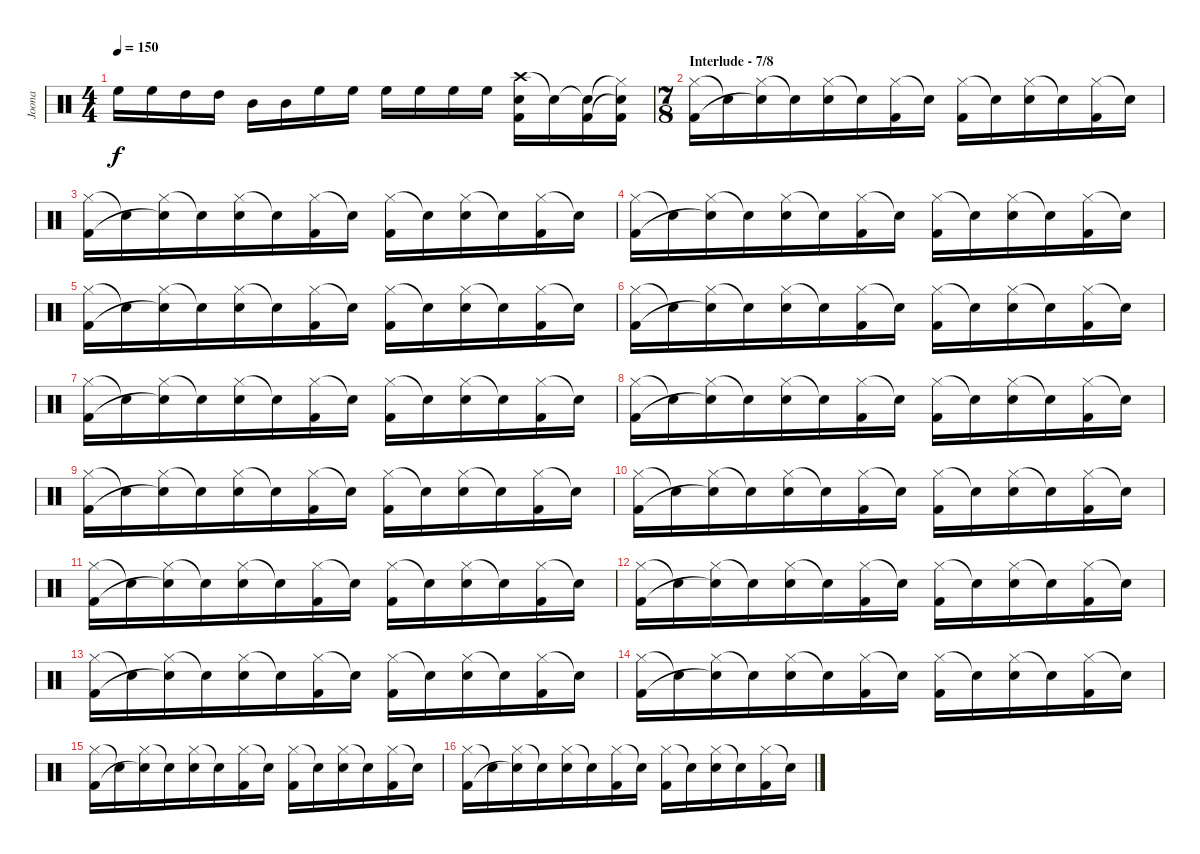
\track ("Joona" "Joona") {instrument percussion}
\staff {score}
\articulation defaults
\ts (4 4)
\tempo 150
\clef neutral
\ks c "High Floor Tom (hit)".16{dy f} "High Floor Tom (hit)".16 "High Tom (hit)".16 "High Tom (hit)".16 "Mid Tom (hit)".16 "Mid Tom (hit)".16 "High Floor Tom (hit)".16 "High Floor Tom (hit)".16 "High Floor Tom (hit)".16 "High Floor Tom (hit)".16 "High Floor Tom (hit)".16 "High Floor Tom (hit)".16
("Crash high (hit)" "Kick (hit) 2" "Snare (hit) 2").16 "Snare (hit)"{t}.16 ("Snare (hit)"{t} "Kick (hit) 2").16 ("Hi-Hat (closed)"{t} "Snare (hit)"{t} "Kick (hit) 2").16 |
\ts (7 8)
\section ("" "Interlude - 7/8")
("Hi-Hat (closed)" "Kick (hit) 2").16 "Snare (hit)"{t}.16 ("Hi-Hat (closed)" "Snare (hit)"{t}).16 "Snare (hit)"{t}.16 ("Hi-Hat (closed)" "Snare (hit) 2").16 "Snare (hit)"{t}.16 ("Hi-Hat (closed)" "Kick (hit) 2").16 "Snare (hit)"{t}.16 ("Hi-Hat (closed)" "Kick (hit) 2").16 "Snare (hit)"{t}.16 ("Hi-Hat (closed)" "Snare (hit) 2").16 "Snare (hit)"{t}.16 ("Hi-Hat (closed)" "Kick (hit) 2").16 "Snare (hit)"{t}.16 |
("Hi-Hat (closed)" "Kick (hit) 2").16 "Snare (hit)"{t}.16 ("Hi-Hat (closed)" "Snare (hit)"{t}).16 "Snare (hit)"{t}.16 ("Hi-Hat (closed)" "Snare (hit) 2").16 "Snare (hit)"{t}.16 ("Hi-Hat (closed)" "Kick (hit) 2").16 "Snare (hit)"{t}.16 ("Hi-Hat (closed)" "Kick (hit) 2").16 "Snare (hit)"{t}.16 ("Hi-Hat (closed)" "Snare (hit) 2").16 "Snare (hit)"{t}.16 ("Hi-Hat (closed)" "Kick (hit) 2").16 "Snare (hit)"{t}.16 |
("Hi-Hat (closed)" "Kick (hit) 2").16 "Snare (hit)"{t}.16 ("Hi-Hat (closed)" "Snare (hit)"{t}).16 "Snare (hit)"{t}.16 ("Hi-Hat (closed)" "Snare (hit) 2").16 "Snare (hit)"{t}.16 ("Hi-Hat (closed)" "Kick (hit) 2").16 "Snare (hit)"{t}.16 ("Hi-Hat (closed)" "Kick (hit) 2").16 "Snare (hit)"{t}.16 ("Hi-Hat (closed)" "Snare (hit) 2").16 "Snare (hit)"{t}.16 ("Hi-Hat (closed)" "Kick (hit) 2").16 "Snare (hit)"{t}.16 |
("Hi-Hat (closed)" "Kick (hit) 2").16 "Snare (hit)"{t}.16 ("Hi-Hat (closed)" "Snare (hit)"{t}).16 "Snare (hit)"{t}.16 ("Hi-Hat (closed)" "Snare (hit) 2").16 "Snare (hit)"{t}.16 ("Hi-Hat (closed)" "Kick (hit) 2").16 "Snare (hit)"{t}.16 ("Hi-Hat (closed)" "Kick (hit) 2").16 "Snare (hit)"{t}.16 ("Hi-Hat (closed)" "Snare (hit) 2").16 "Snare (hit)"{t}.16 ("Hi-Hat (closed)" "Kick (hit) 2").16 "Snare (hit)"{t}.16 |
("Hi-Hat (closed)" "Kick (hit) 2").16 "Snare (hit)"{t}.16 ("Hi-Hat (closed)" "Snare (hit)"{t}).16 "Snare (hit)"{t}.16 ("Hi-Hat (closed)" "Snare (hit) 2").16 "Snare (hit)"{t}.16 ("Hi-Hat (closed)" "Kick (hit) 2").16 "Snare (hit)"{t}.16 ("Hi-Hat (closed)" "Kick (hit) 2").16 "Snare (hit)"{t}.16 ("Hi-Hat (closed)" "Snare (hit) 2").16 "Snare (hit)"{t}.16 ("Hi-Hat (closed)" "Kick (hit) 2").16 "Snare (hit)"{t}.16 |
("Hi-Hat (closed)" "Kick (hit) 2").16 "Snare (hit)"{t}.16 ("Hi-Hat (closed)" "Snare (hit)"{t}).16 "Snare (hit)"{t}.16 ("Hi-Hat (closed)" "Snare (hit) 2").16 "Snare (hit)"{t}.16 ("Hi-Hat (closed)" "Kick (hit) 2").16 "Snare (hit)"{t}.16 ("Hi-Hat (closed)" "Kick (hit) 2").16 "Snare (hit)"{t}.16 ("Hi-Hat (closed)" "Snare (hit) 2").16 "Snare (hit)"{t}.16 ("Hi-Hat (closed)" "Kick (hit) 2").16 "Snare (hit)"{t}.16 |
("Hi-Hat (closed)" "Kick (hit) 2").16 "Snare (hit)"{t}.16 ("Hi-Hat (closed)" "Snare (hit)"{t}).16 "Snare (hit)"{t}.16 ("Hi-Hat (closed)" "Snare (hit) 2").16 "Snare (hit)"{t}.16 ("Hi-Hat (closed)" "Kick (hit) 2").16 "Snare (hit)"{t}.16 ("Hi-Hat (closed)" "Kick (hit) 2").16 "Snare (hit)"{t}.16 ("Hi-Hat (closed)" "Snare (hit) 2").16 "Snare (hit)"{t}.16 ("Hi-Hat (closed)" "Kick (hit) 2").16 "Snare (hit)"{t}.16 |
("Hi-Hat (closed)" "Kick (hit) 2").16 "Snare (hit)"{t}.16 ("Hi-Hat (closed)" "Snare (hit)"{t}).16 "Snare (hit)"{t}.16 ("Hi-Hat (closed)" "Snare (hit) 2").16 "Snare (hit)"{t}.16 ("Hi-Hat (closed)" "Kick (hit) 2").16 "Snare (hit)"{t}.16 ("Hi-Hat (closed)" "Kick (hit) 2").16 "Snare (hit)"{t}.16 ("Hi-Hat (closed)" "Snare (hit) 2").16 "Snare (hit)"{t}.16 ("Hi-Hat (closed)" "Kick (hit) 2").16 "Snare (hit)"{t}.16 |
("Hi-Hat (closed)" "Kick (hit) 2").16 "Snare (hit)"{t}.16 ("Hi-Hat (closed)" "Snare (hit)"{t}).16 "Snare (hit)"{t}.16 ("Hi-Hat (closed)" "Snare (hit) 2").16 "Snare (hit)"{t}.16 ("Hi-Hat (closed)" "Kick (hit) 2").16 "Snare (hit)"{t}.16 ("Hi-Hat (closed)" "Kick (hit) 2").16 "Snare (hit)"{t}.16 ("Hi-Hat (closed)" "Snare (hit) 2").16 "Snare (hit)"{t}.16 ("Hi-Hat (closed)" "Kick (hit) 2").16 "Snare (hit)"{t}.16 |
("Hi-Hat (closed)" "Kick (hit) 2").16 "Snare (hit)"{t}.16 ("Hi-Hat (closed)" "Snare (hit)"{t}).16 "Snare (hit)"{t}.16 ("Hi-Hat (closed)" "Snare (hit) 2").16 "Snare (hit)"{t}.16 ("Hi-Hat (closed)" "Kick (hit) 2").16 "Snare (hit)"{t}.16 ("Hi-Hat (closed)" "Kick (hit) 2").16 "Snare (hit)"{t}.16 ("Hi-Hat (closed)" "Snare (hit) 2").16 "Snare (hit)"{t}.16 ("Hi-Hat (closed)" "Kick (hit) 2").16 "Snare (hit)"{t}.16 |
("Hi-Hat (closed)" "Kick (hit) 2").16 "Snare (hit)"{t}.16 ("Hi-Hat (closed)" "Snare (hit)"{t}).16 "Snare (hit)"{t}.16 ("Hi-Hat (closed)" "Snare (hit) 2").16 "Snare (hit)"{t}.16 ("Hi-Hat (closed)" "Kick (hit) 2").16 "Snare (hit)"{t}.16 ("Hi-Hat (closed)" "Kick (hit) 2").16 "Snare (hit)"{t}.16 ("Hi-Hat (closed)" "Snare (hit) 2").16 "Snare (hit)"{t}.16 ("Hi-Hat (closed)" "Kick (hit) 2").16 "Snare (hit)"{t}.16 |
("Hi-Hat (closed)" "Kick (hit) 2").16 "Snare (hit)"{t}.16 ("Hi-Hat (closed)" "Snare (hit)"{t}).16 "Snare (hit)"{t}.16 ("Hi-Hat (closed)" "Snare (hit) 2").16 "Snare (hit)"{t}.16 ("Hi-Hat (closed)" "Kick (hit) 2").16 "Snare (hit)"{t}.16 ("Hi-Hat (closed)" "Kick (hit) 2").16 "Snare (hit)"{t}.16 ("Hi-Hat (closed)" "Snare (hit) 2").16 "Snare (hit)"{t}.16 ("Hi-Hat (closed)" "Kick (hit) 2").16 "Snare (hit)"{t}.16 |
("Hi-Hat (closed)" "Kick (hit) 2").16 "Snare (hit)"{t}.16 ("Hi-Hat (closed)" "Snare (hit)"{t}).16 "Snare (hit)"{t}.16 ("Hi-Hat (closed)" "Snare (hit) 2").16 "Snare (hit)"{t}.16 ("Hi-Hat (closed)" "Kick (hit) 2").16 "Snare (hit)"{t}.16 ("Hi-Hat (closed)" "Kick (hit) 2").16 "Snare (hit)"{t}.16 ("Hi-Hat (closed)" "Snare (hit) 2").16 "Snare (hit)"{t}.16 ("Hi-Hat (closed)" "Kick (hit) 2").16 "Snare (hit)"{t}.16 |
("Hi-Hat (closed)" "Kick (hit) 2").16 "Snare (hit)"{t}.16 ("Hi-Hat (closed)" "Snare (hit)"{t}).16 "Snare (hit)"{t}.16 ("Hi-Hat (closed)" "Snare (hit) 2").16 "Snare (hit)"{t}.16 ("Hi-Hat (closed)" "Kick (hit) 2").16 "Snare (hit)"{t}.16 ("Hi-Hat (closed)" "Kick (hit) 2").16 "Snare (hit)"{t}.16 ("Hi-Hat (closed)" "Snare (hit) 2").16 "Snare (hit)"{t}.16 ("Hi-Hat (closed)" "Kick (hit) 2").16 "Snare (hit)"{t}.16 |
("Hi-Hat (closed)" "Kick (hit) 2").16 "Snare (hit)"{t}.16 ("Hi-Hat (closed)" "Snare (hit)"{t}).16 "Snare (hit)"{t}.16 ("Hi-Hat (closed)" "Snare (hit) 2").16 "Snare (hit)"{t}.16 ("Hi-Hat (closed)" "Kick (hit) 2").16 "Snare (hit)"{t}.16 ("Hi-Hat (closed)" "Kick (hit) 2").16 "Snare (hit)"{t}.16 ("Hi-Hat (closed)" "Snare (hit) 2").16 "Snare (hit)"{t}.16 ("Hi-Hat (closed)" "Kick (hit) 2").16 "Snare (hit)"{t}.16
